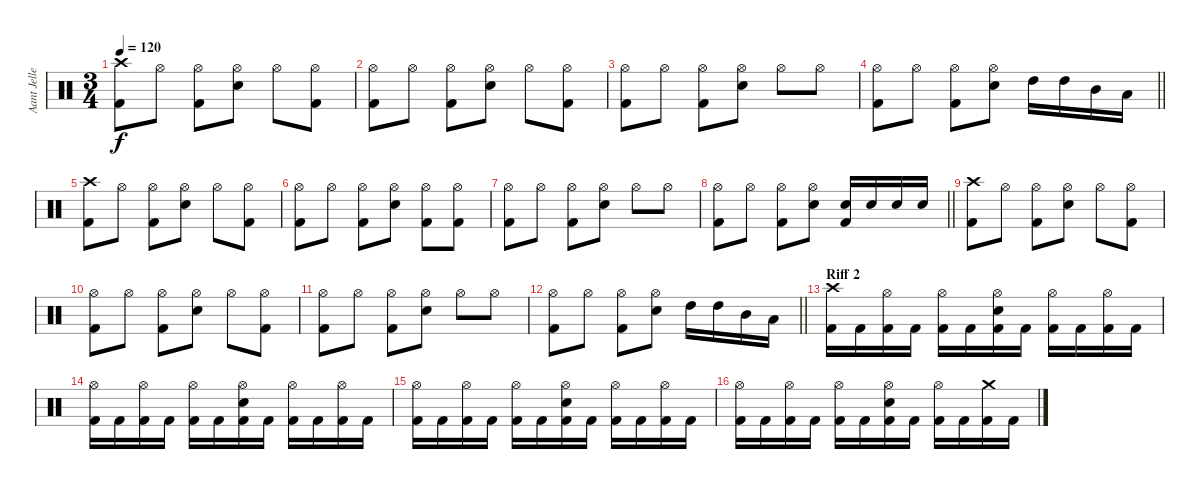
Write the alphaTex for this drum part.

\track ("Aant Jelle" "Aant Jelle") {instrument percussion}
\staff {score}
\articulation defaults
\ts (3 4)
\tempo 120
\clef neutral
\ks c
("Crash high (hit)" "Kick (hit) 2").8{dy f} "Hi-Hat (open)".8 ("Hi-Hat (open)" "Kick (hit) 2").8 ("Hi-Hat (open)" "Snare (hit) 2").8 "Hi-Hat (open)".8 ("Hi-Hat (open)" "Kick (hit) 2").8 |
("Hi-Hat (open)" "Kick (hit) 2").8 "Hi-Hat (open)".8 ("Hi-Hat (open)" "Kick (hit) 2").8 ("Hi-Hat (open)" "Snare (hit) 2").8 "Hi-Hat (open)".8 ("Hi-Hat (open)" "Kick (hit) 2").8 |
("Hi-Hat (open)" "Kick (hit) 2").8 "Hi-Hat (open)".8 ("Hi-Hat (open)" "Kick (hit) 2").8 ("Hi-Hat (open)" "Snare (hit) 2").8 "Hi-Hat (open)".8 "Hi-Hat (open)".8 |
\barLineRight lightlight
("Hi-Hat (open)" "Kick (hit) 2").8 "Hi-Hat (open)".8 ("Hi-Hat (open)" "Kick (hit) 2").8 ("Hi-Hat (open)" "Snare (hit) 2").8 "High Tom (hit)".16 "High Tom (hit)".16 "Mid Tom (hit)".16 "Low Tom (hit)".16 |
("Crash high (hit)" "Kick (hit) 2").8 "Hi-Hat (open)".8 ("Hi-Hat (open)" "Kick (hit) 2").8 ("Hi-Hat (open)" "Snare (hit) 2").8 "Hi-Hat (open)".8 ("Hi-Hat (open)" "Kick (hit) 2").8 |
("Hi-Hat (open)" "Kick (hit) 2").8 "Hi-Hat (open)".8 ("Hi-Hat (open)" "Kick (hit) 2").8 ("Hi-Hat (open)" "Snare (hit) 2").8 ("Hi-Hat (open)" "Kick (hit) 2").8 ("Hi-Hat (open)" "Kick (hit) 2").8 |
("Hi-Hat (open)" "Kick (hit) 2").8 "Hi-Hat (open)".8 ("Hi-Hat (open)" "Kick (hit) 2").8 ("Hi-Hat (open)" "Snare (hit) 2").8 "Hi-Hat (open)".8 "Hi-Hat (open)".8 |
\barLineRight lightlight
("Hi-Hat (open)" "Kick (hit) 2").8 "Hi-Hat (open)".8 ("Hi-Hat (open)" "Kick (hit) 2").8 ("Hi-Hat (open)" "Snare (hit) 2").8 ("Snare (hit) 2" "Kick (hit) 2").16 "Snare (hit) 2".16 "Snare (hit) 2".16 "Snare (hit) 2".16 |
("Crash high (hit)" "Kick (hit) 2").8 "Hi-Hat (open)".8 ("Hi-Hat (open)" "Kick (hit) 2").8 ("Hi-Hat (open)" "Snare (hit) 2").8 "Hi-Hat (open)".8 ("Hi-Hat (open)" "Kick (hit) 2").8 |
("Hi-Hat (open)" "Kick (hit) 2").8 "Hi-Hat (open)".8 ("Hi-Hat (open)" "Kick (hit) 2").8 ("Hi-Hat (open)" "Snare (hit) 2").8 "Hi-Hat (open)".8 ("Hi-Hat (open)" "Kick (hit) 2").8 |
("Hi-Hat (open)" "Kick (hit) 2").8 "Hi-Hat (open)".8 ("Hi-Hat (open)" "Kick (hit) 2").8 ("Hi-Hat (open)" "Snare (hit) 2").8 "Hi-Hat (open)".8 "Hi-Hat (open)".8 |
\barLineRight lightlight
("Hi-Hat (open)" "Kick (hit) 2").8 "Hi-Hat (open)".8 ("Hi-Hat (open)" "Kick (hit) 2").8 ("Hi-Hat (open)" "Snare (hit) 2").8 "High Tom (hit)".16 "High Tom (hit)".16 "Mid Tom (hit)".16 "Low Tom (hit)".16 |
\section ("" "Riff 2")
("Crash high (hit)" "Kick (hit) 2").16 "Kick (hit) 2".16 ("Hi-Hat (open)" "Kick (hit) 2").16 "Kick (hit) 2".16 ("Hi-Hat (open)" "Kick (hit) 2").16 "Kick (hit) 2".16 ("Hi-Hat (open)" "Snare (hit) 2" "Kick (hit) 2").16 "Kick (hit) 2".16 ("Hi-Hat (open)" "Kick (hit) 2").16 "Kick (hit) 2".16 ("Hi-Hat (open)" "Kick (hit) 2").16 "Kick (hit) 2".16 |
("Hi-Hat (open)" "Kick (hit) 2").16 "Kick (hit) 2".16 ("Hi-Hat (open)" "Kick (hit) 2").16 "Kick (hit) 2".16 ("Hi-Hat (open)" "Kick (hit) 2").16 "Kick (hit) 2".16 ("Hi-Hat (open)" "Snare (hit) 2" "Kick (hit) 2").16 "Kick (hit) 2".16 ("Hi-Hat (open)" "Kick (hit) 2").16 "Kick (hit) 2".16 ("Hi-Hat (open)" "Kick (hit) 2").16 "Kick (hit) 2".16 |
("Hi-Hat (open)" "Kick (hit) 2").16 "Kick (hit) 2".16 ("Hi-Hat (open)" "Kick (hit) 2").16 "Kick (hit) 2".16 ("Hi-Hat (open)" "Kick (hit) 2").16 "Kick (hit) 2".16 ("Hi-Hat (open)" "Snare (hit) 2" "Kick (hit) 2").16 "Kick (hit) 2".16 ("Hi-Hat (open)" "Kick (hit) 2").16 "Kick (hit) 2".16 ("Hi-Hat (open)" "Kick (hit) 2").16 "Kick (hit) 2".16 |
("Hi-Hat (open)" "Kick (hit) 2").16 "Kick (hit) 2".16 ("Hi-Hat (open)" "Kick (hit) 2").16 "Kick (hit) 2".16 ("Hi-Hat (open)" "Kick (hit) 2").16 "Kick (hit) 2".16 ("Hi-Hat (open)" "Snare (hit) 2" "Kick (hit) 2").16 "Kick (hit) 2".16 ("Hi-Hat (open)" "Kick (hit) 2").16 "Kick (hit) 2".16 ("Crash medium (hit)" "Kick (hit) 2").16 "Kick (hit) 2".16
